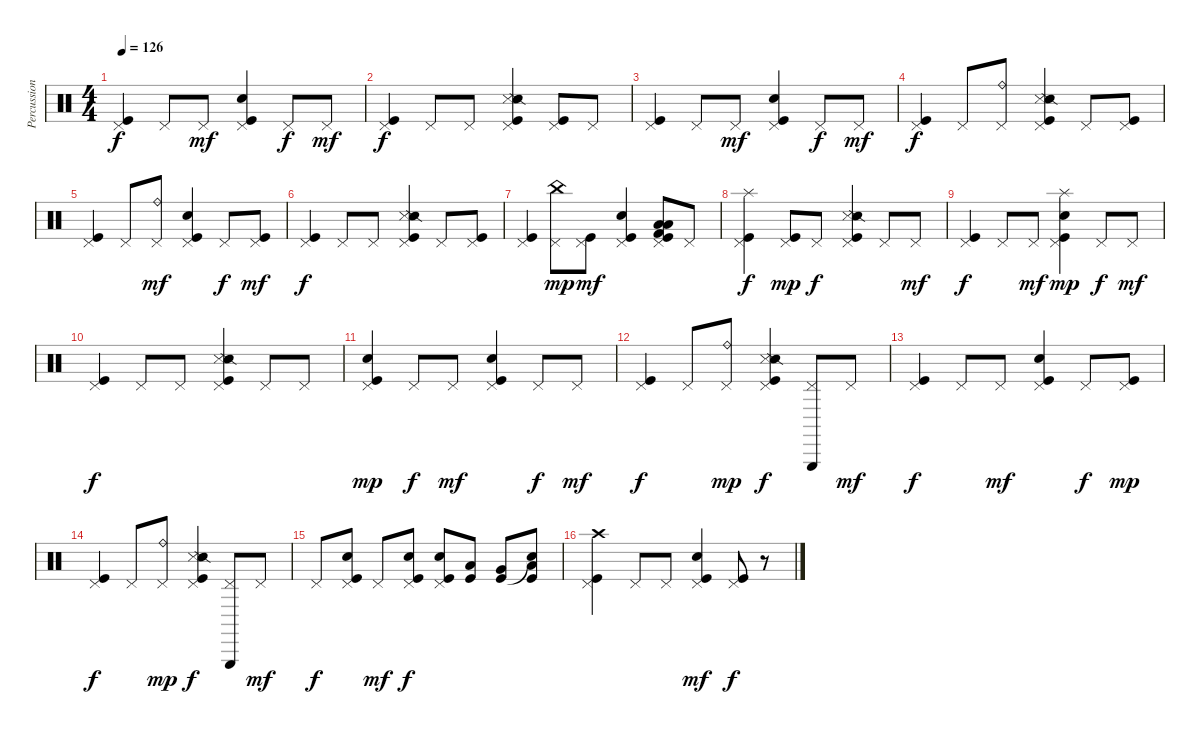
\track ("Percussion" "Percussion") {instrument percussion}
\staff {score}
\articulation defaults
\ts (4 4)
\tempo 126
\clef neutral
\ks c
("Pedal Hi-Hat (hit)" "Kick (hit)").4{dy f} "Pedal Hi-Hat (hit)".8 "Pedal Hi-Hat (hit)".8{dy mf} ("Pedal Hi-Hat (hit)" "Kick (hit)" "Electric Snare (hit)").4 "Pedal Hi-Hat (hit)".8{dy f} "Pedal Hi-Hat (hit)".8{dy mf} |
("Pedal Hi-Hat (hit)" "Kick (hit)").4{dy f} "Pedal Hi-Hat (hit)".8 "Pedal Hi-Hat (hit)".8 ("Pedal Hi-Hat (hit)" "Snare (side stick) 3" "Snare (side stick) 2" "Kick (hit)").4 ("Pedal Hi-Hat (hit)" "Kick (hit)").8 "Pedal Hi-Hat (hit)".8 |
("Pedal Hi-Hat (hit)" "Kick (hit)").4 "Pedal Hi-Hat (hit)".8 "Pedal Hi-Hat (hit)".8{dy mf} ("Pedal Hi-Hat (hit)" "Kick (hit)" "Electric Snare (hit)").4 "Pedal Hi-Hat (hit)".8{dy f} "Pedal Hi-Hat (hit)".8{dy mf} |
("Pedal Hi-Hat (hit)" "Kick (hit)").4{dy f} "Pedal Hi-Hat (hit)".8 ("Pedal Hi-Hat (hit)" "Ride (bell)").8 ("Pedal Hi-Hat (hit)" "Snare (side stick) 3" "Snare (side stick) 2" "Kick (hit)").4 "Pedal Hi-Hat (hit)".8 ("Pedal Hi-Hat (hit)" "Kick (hit)").8 |
("Pedal Hi-Hat (hit)" "Kick (hit)").4 "Pedal Hi-Hat (hit)".8 ("Pedal Hi-Hat (hit)" "Ride (bell)").8{dy mf} ("Pedal Hi-Hat (hit)" "Kick (hit)" "Electric Snare (hit)").4 "Pedal Hi-Hat (hit)".8{dy f} ("Pedal Hi-Hat (hit)" "Kick (hit)").8{dy mf} |
("Pedal Hi-Hat (hit)" "Kick (hit)").4{dy f} "Pedal Hi-Hat (hit)".8 "Pedal Hi-Hat (hit)".8 ("Pedal Hi-Hat (hit)" "Snare (side stick) 3" "Snare (side stick) 2" "Kick (hit)").4 "Pedal Hi-Hat (hit)".8 ("Pedal Hi-Hat (hit)" "Kick (hit)").8 |
("Pedal Hi-Hat (hit)" "Kick (hit)").4 ("Pedal Hi-Hat (hit)" "China (hit)").8{dy mp} ("Pedal Hi-Hat (hit)" "Kick (hit)").8{dy mf} ("Pedal Hi-Hat (hit)" "Kick (hit)" "Electric Snare (hit)").4 ("Low Floor Tom (hit)" "Pedal Hi-Hat (hit)" "Kick (hit) 2" "Kick (hit)" "Low Floor Tom (hit)").8 "Pedal Hi-Hat (hit)".8 |
("Pedal Hi-Hat (hit)" "Kick (hit)" "Splash (hit)").4{dy f} ("Pedal Hi-Hat (hit)" "Kick (hit)").8{dy mp} "Pedal Hi-Hat (hit)".8{dy f} ("Pedal Hi-Hat (hit)" "Snare (side stick) 3" "Snare (side stick) 2" "Kick (hit)").4 "Pedal Hi-Hat (hit)".8 "Pedal Hi-Hat (hit)".8{dy mf} |
("Pedal Hi-Hat (hit)" "Kick (hit)").4{dy f} "Pedal Hi-Hat (hit)".8 "Pedal Hi-Hat (hit)".8{dy mf} ("Pedal Hi-Hat (hit)" "Kick (hit)" "Electric Snare (hit)" "Splash (hit)").4{dy mp} "Pedal Hi-Hat (hit)".8{dy f} "Pedal Hi-Hat (hit)".8{dy mf} |
("Pedal Hi-Hat (hit)" "Kick (hit)").4{dy f} "Pedal Hi-Hat (hit)".8 "Pedal Hi-Hat (hit)".8 ("Pedal Hi-Hat (hit)" "Snare (side stick) 3" "Snare (side stick) 2" "Kick (hit)").4 "Pedal Hi-Hat (hit)".8 "Pedal Hi-Hat (hit)".8 |
("Metronome (bell)" "Pedal Hi-Hat (hit)" "Kick (hit)").4{dy mp} "Pedal Hi-Hat (hit)".8{dy f} "Pedal Hi-Hat (hit)".8{dy mf} ("Pedal Hi-Hat (hit)" "Kick (hit)" "Electric Snare (hit)").4 "Pedal Hi-Hat (hit)".8{dy f} "Pedal Hi-Hat (hit)".8{dy mf} |
("Pedal Hi-Hat (hit)" "Kick (hit)").4{dy f} "Pedal Hi-Hat (hit)".8 ("Pedal Hi-Hat (hit)" "Ride (bell)").8{dy mp} ("Pedal Hi-Hat (hit)" "Snare (side stick) 3" "Snare (side stick) 2" "Kick (hit)").4{dy f} ("Pedal Hi-Hat (hit)" "Triangle (hit)").8 "Pedal Hi-Hat (hit)".8{dy mf} |
("Pedal Hi-Hat (hit)" "Kick (hit)").4{dy f} "Pedal Hi-Hat (hit)".8 "Pedal Hi-Hat (hit)".8{dy mf} ("Pedal Hi-Hat (hit)" "Kick (hit)" "Electric Snare (hit)").4 "Pedal Hi-Hat (hit)".8{dy f} ("Pedal Hi-Hat (hit)" "Kick (hit)").8{dy mp} |
("Pedal Hi-Hat (hit)" "Kick (hit)").4{dy f} "Pedal Hi-Hat (hit)".8 ("Pedal Hi-Hat (hit)" "Ride (bell)").8{dy mp} ("Pedal Hi-Hat (hit)" "Snare (side stick) 3" "Snare (side stick) 2" "Kick (hit)").4{dy f} ("Pedal Hi-Hat (hit)" "Triangle (hit)").8 "Pedal Hi-Hat (hit)".8{dy mf} |
"Pedal Hi-Hat (hit)".8{dy f} ("Pedal Hi-Hat (hit)" "Electric Snare (hit)" "Kick (hit)").8 "Pedal Hi-Hat (hit)".8{dy mf} ("Metronome (bell)" "Pedal Hi-Hat (hit)" "Kick (hit)").8{dy f} ("Pedal Hi-Hat (hit)" "Electric Snare (hit)" "Kick (hit)").8 ("Kick (hit)" "Low Tom (hit)").8 ("Kick (hit)" "Very Low Tom (hit)").8 ("Snare (hit)"{t} "Kick (hit)" "Low Floor Tom (hit)").8 |
("Pedal Hi-Hat (hit)" "Kick (hit)" "Crash high (hit)").4 "Pedal Hi-Hat (hit)".8 "Pedal Hi-Hat (hit)".8 ("Pedal Hi-Hat (hit)" "Electric Snare (hit)" "Kick (hit)").4{dy mf} ("Pedal Hi-Hat (hit)" "Kick (hit)").8{dy f} r.8
